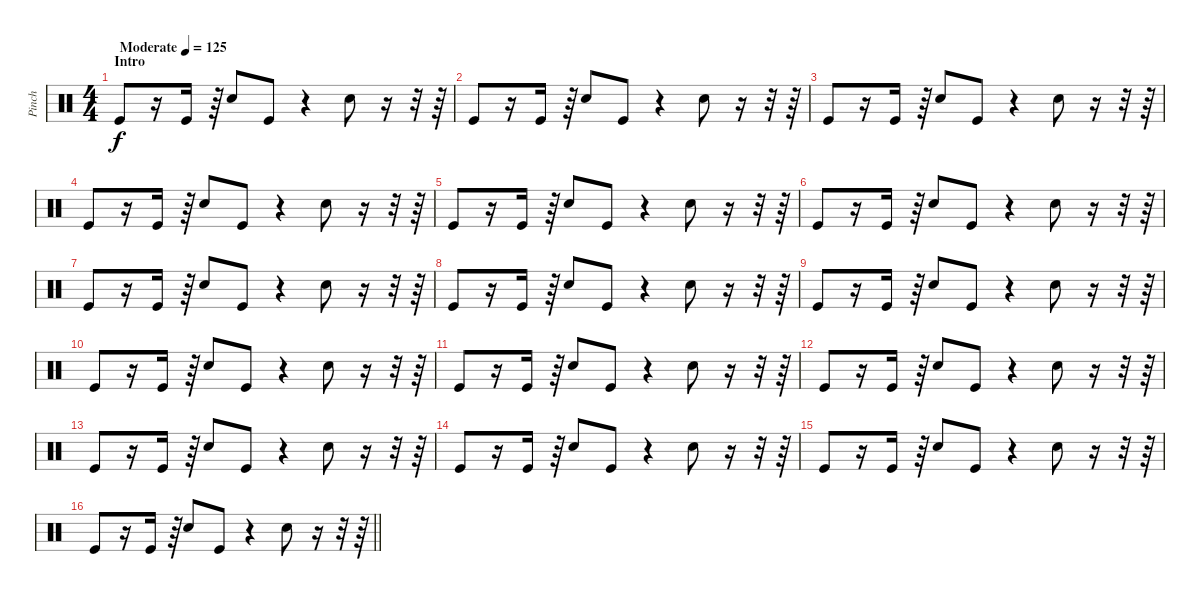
\track ("Pinch" "Pinch") {instrument percussion}
\staff {score}
\articulation defaults
\ts (4 4)
\section ("" "Intro")
\tempo (125 "Moderate")
\clef neutral
\ks c "Kick (hit)".8{dy f}
r.16 "Kick (hit)".16 r.64 "Snare (hit) 2".8 "Kick (hit)".8 r.4 "Snare (hit) 2".8 r.16 r.32 r.64 |
"Kick (hit)".8 r.16 "Kick (hit)".16 r.64 "Snare (hit) 2".8 "Kick (hit)".8 r.4 "Snare (hit) 2".8 r.16 r.32 r.64 |
"Kick (hit)".8 r.16 "Kick (hit)".16 r.64 "Snare (hit) 2".8 "Kick (hit)".8 r.4 "Snare (hit) 2".8 r.16 r.32 r.64 |
"Kick (hit)".8 r.16 "Kick (hit)".16 r.64 "Snare (hit) 2".8 "Kick (hit)".8 r.4 "Snare (hit) 2".8 r.16 r.32 r.64 |
"Kick (hit)".8 r.16 "Kick (hit)".16 r.64 "Snare (hit) 2".8 "Kick (hit)".8 r.4 "Snare (hit) 2".8 r.16 r.32 r.64 |
"Kick (hit)".8 r.16 "Kick (hit)".16 r.64 "Snare (hit) 2".8 "Kick (hit)".8 r.4 "Snare (hit) 2".8 r.16 r.32 r.64 |
"Kick (hit)".8 r.16 "Kick (hit)".16 r.64 "Snare (hit) 2".8 "Kick (hit)".8 r.4 "Snare (hit) 2".8 r.16 r.32 r.64 |
"Kick (hit)".8 r.16 "Kick (hit)".16 r.64 "Snare (hit) 2".8 "Kick (hit)".8 r.4 "Snare (hit) 2".8 r.16 r.32 r.64 |
"Kick (hit)".8 r.16 "Kick (hit)".16 r.64 "Snare (hit) 2".8 "Kick (hit)".8 r.4 "Snare (hit) 2".8 r.16 r.32 r.64 |
"Kick (hit)".8 r.16 "Kick (hit)".16 r.64 "Snare (hit) 2".8 "Kick (hit)".8 r.4 "Snare (hit) 2".8 r.16 r.32 r.64 |
"Kick (hit)".8 r.16 "Kick (hit)".16 r.64 "Snare (hit) 2".8 "Kick (hit)".8 r.4 "Snare (hit) 2".8 r.16 r.32 r.64 |
"Kick (hit)".8 r.16 "Kick (hit)".16 r.64 "Snare (hit) 2".8 "Kick (hit)".8 r.4 "Snare (hit) 2".8 r.16 r.32 r.64 |
"Kick (hit)".8 r.16 "Kick (hit)".16 r.64 "Snare (hit) 2".8 "Kick (hit)".8 r.4 "Snare (hit) 2".8 r.16 r.32 r.64 |
"Kick (hit)".8 r.16 "Kick (hit)".16 r.64 "Snare (hit) 2".8 "Kick (hit)".8 r.4 "Snare (hit) 2".8 r.16 r.32 r.64 |
"Kick (hit)".8 r.16 "Kick (hit)".16 r.64 "Snare (hit) 2".8 "Kick (hit)".8 r.4 "Snare (hit) 2".8 r.16 r.32 r.64 |
\barLineRight lightlight "Kick (hit)".8
r.16 "Kick (hit)".16 r.64 "Snare (hit) 2".8 "Kick (hit)".8 r.4 "Snare (hit) 2".8 r.16 r.32 r.64
